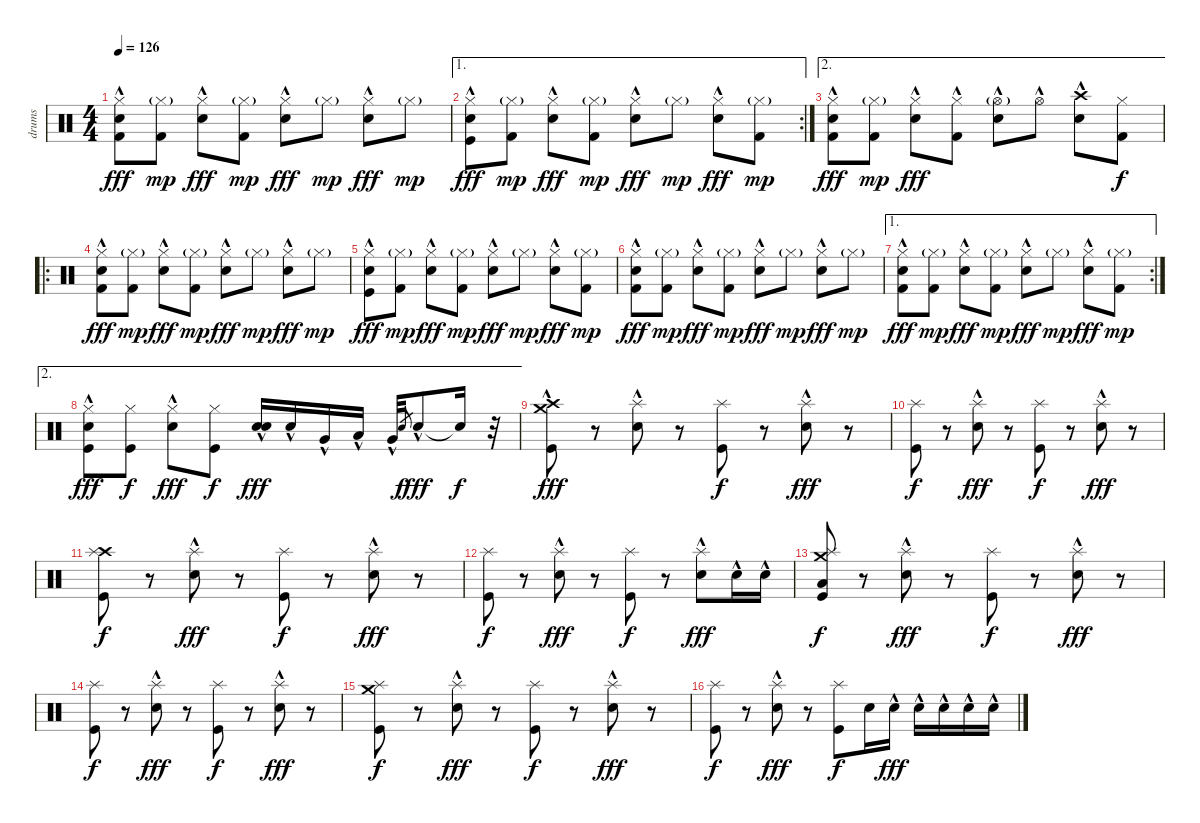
\track ("drums" "drums") {instrument percussion}
\staff {score}
\articulation defaults
\ts (4 4)
\tempo 126
\clef neutral
\ks c
("Hi-Hat (closed)" "Electric Snare (hit)"{hac} "Kick (hit) 2").8{dy fff} ("Hi-Hat (closed)"{g} "Kick (hit) 2").8{dy mp} ("Hi-Hat (closed)" "Electric Snare (hit)"{hac}).8{dy fff} ("Hi-Hat (closed)"{g} "Kick (hit) 2").8{dy mp} ("Hi-Hat (closed)" "Electric Snare (hit)"{hac}).8{dy fff} "Hi-Hat (closed)"{g}.8{dy mp} ("Hi-Hat (closed)" "Electric Snare (hit)"{hac}).8{dy fff} "Hi-Hat (closed)"{g}.8{dy mp} |
\ae 1
\rc 2
("Hi-Hat (closed)" "Electric Snare (hit)"{hac} "Kick (hit)").8{dy fff} ("Hi-Hat (closed)"{g} "Kick (hit) 2").8{dy mp} ("Hi-Hat (closed)" "Electric Snare (hit)"{hac}).8{dy fff} ("Hi-Hat (closed)"{g} "Kick (hit) 2").8{dy mp} ("Hi-Hat (closed)" "Electric Snare (hit)"{hac}).8{dy fff} "Hi-Hat (closed)"{g}.8{dy mp} ("Hi-Hat (closed)" "Electric Snare (hit)"{hac}).8{dy fff} ("Hi-Hat (closed)"{g} "Kick (hit) 2").8{dy mp} |
\ae 2
("Hi-Hat (closed)" "Electric Snare (hit)"{hac} "Kick (hit) 2").8{dy fff} ("Hi-Hat (closed)"{g} "Kick (hit) 2").8{dy mp} ("Hi-Hat (closed)" "Electric Snare (hit)"{hac}).8{dy fff} ("Hi-Hat (closed)"{hac} "Kick (hit) 2").8 ("Hi-Hat (open)"{g} "Electric Snare (hit)"{hac}).8 "Hi-Hat (open)"{hac}.8 ("Crash high (hit)" "Electric Snare (hit)"{hac}).8 ("Hi-Hat (closed)" "Kick (hit) 2").8{dy f} |
\ro
("Hi-Hat (closed)" "Electric Snare (hit)"{hac} "Kick (hit) 2").8{dy fff} ("Hi-Hat (closed)"{g} "Kick (hit) 2").8{dy mp} ("Hi-Hat (closed)" "Electric Snare (hit)"{hac}).8{dy fff} ("Hi-Hat (closed)"{g} "Kick (hit) 2").8{dy mp} ("Hi-Hat (closed)" "Electric Snare (hit)"{hac}).8{dy fff} "Hi-Hat (closed)"{g}.8{dy mp} ("Hi-Hat (closed)" "Electric Snare (hit)"{hac}).8{dy fff} "Hi-Hat (closed)"{g}.8{dy mp} |
("Hi-Hat (closed)" "Electric Snare (hit)"{hac} "Kick (hit)").8{dy fff} ("Hi-Hat (closed)"{g} "Kick (hit) 2").8{dy mp} ("Hi-Hat (closed)" "Electric Snare (hit)"{hac}).8{dy fff} ("Hi-Hat (closed)"{g} "Kick (hit) 2").8{dy mp} ("Hi-Hat (closed)" "Electric Snare (hit)"{hac}).8{dy fff} "Hi-Hat (closed)"{g}.8{dy mp} ("Hi-Hat (closed)" "Electric Snare (hit)"{hac}).8{dy fff} ("Hi-Hat (closed)"{g} "Kick (hit) 2").8{dy mp} |
("Hi-Hat (closed)" "Electric Snare (hit)"{hac} "Kick (hit) 2").8{dy fff} ("Hi-Hat (closed)"{g} "Kick (hit) 2").8{dy mp} ("Hi-Hat (closed)" "Electric Snare (hit)"{hac}).8{dy fff} ("Hi-Hat (closed)"{g} "Kick (hit) 2").8{dy mp} ("Hi-Hat (closed)" "Electric Snare (hit)"{hac}).8{dy fff} "Hi-Hat (closed)"{g}.8{dy mp} ("Hi-Hat (closed)" "Electric Snare (hit)"{hac}).8{dy fff} "Hi-Hat (closed)"{g}.8{dy mp} |
\ae 1
\rc 2
("Hi-Hat (closed)" "Electric Snare (hit)"{hac} "Kick (hit) 2").8{dy fff} ("Hi-Hat (closed)"{g} "Kick (hit) 2").8{dy mp} ("Hi-Hat (closed)" "Electric Snare (hit)"{hac}).8{dy fff} ("Hi-Hat (closed)"{g} "Kick (hit) 2").8{dy mp} ("Hi-Hat (closed)" "Electric Snare (hit)"{hac}).8{dy fff} "Hi-Hat (closed)"{g}.8{dy mp} ("Hi-Hat (closed)" "Electric Snare (hit)"{hac}).8{dy fff} ("Hi-Hat (closed)"{g} "Kick (hit) 2").8{dy mp} |
\ae 2
("Hi-Hat (closed)" "Electric Snare (hit)"{hac} "Kick (hit)").8{dy fff} ("Hi-Hat (closed)" "Kick (hit)").8{dy f} ("Hi-Hat (closed)" "Electric Snare (hit)"{hac}).8{dy fff} ("Hi-Hat (closed)" "Kick (hit)").8{dy f} ("Electric Snare (hit)"{hac} "Electric Snare (hit)"{hac}).16{dy fff} "Electric Snare (hit)"{hac}.16 "Very Low Tom (hit)"{hac}.16 "Low Floor Tom (hit)"{hac}.16 "Very Low Tom (hit)"{hac}.32 "Electric Snare (hit)".8{gr dy f} "Electric Snare (hit)"{hac}.8{dy fff} "Snare (hit)"{t}.16{dy f} r.32 |
("Crash high (hit)"{hac} "Crash medium (hit)"{hac} "Kick (hit)").8{dy fff} r.8 ("Splash (hit)" "Electric Snare (hit)"{hac}).8 r.8 ("Splash (hit)" "Kick (hit)").8{dy f} r.8 ("Splash (hit)" "Electric Snare (hit)"{hac}).8{dy fff} r.8 |
("Splash (hit)" "Kick (hit)").8{dy f} r.8 ("Splash (hit)" "Electric Snare (hit)"{hac}).8{dy fff} r.8 ("Splash (hit)" "Kick (hit)").8{dy f} r.8 ("Splash (hit)" "Electric Snare (hit)"{hac}).8{dy fff} r.8 |
("Crash high (hit)" "Splash (hit)" "Kick (hit)").8{dy f} r.8 ("Splash (hit)" "Electric Snare (hit)"{hac}).8{dy fff} r.8 ("Splash (hit)" "Kick (hit)").8{dy f} r.8 ("Splash (hit)" "Electric Snare (hit)"{hac}).8{dy fff} r.8 |
("Splash (hit)" "Kick (hit)").8{dy f} r.8 ("Splash (hit)" "Electric Snare (hit)"{hac}).8{dy fff} r.8 ("Splash (hit)" "Kick (hit)").8{dy f} r.8 ("Splash (hit)" "Electric Snare (hit)"{hac}).8{dy fff} "Electric Snare (hit)"{hac}.16 "Electric Snare (hit)"{hac}.16 |
("Crash medium (hit)" "Splash (hit)" "Low Tom (hit)" "Kick (hit)").8{dy f} r.8 ("Splash (hit)" "Electric Snare (hit)"{hac}).8{dy fff} r.8 ("Splash (hit)" "Kick (hit)").8{dy f} r.8 ("Splash (hit)" "Electric Snare (hit)"{hac}).8{dy fff} r.8 |
("Splash (hit)" "Kick (hit)").8{dy f} r.8 ("Splash (hit)" "Electric Snare (hit)"{hac}).8{dy fff} r.8 ("Splash (hit)" "Kick (hit)").8{dy f} r.8 ("Splash (hit)" "Electric Snare (hit)"{hac}).8{dy fff} r.8 |
("Crash medium (hit)" "Splash (hit)" "Kick (hit)").8{dy f} r.8 ("Splash (hit)" "Electric Snare (hit)"{hac}).8{dy fff} r.8 ("Splash (hit)" "Kick (hit)").8{dy f} r.8 ("Splash (hit)" "Electric Snare (hit)"{hac}).8{dy fff} r.8 |
("Splash (hit)" "Kick (hit)").8{dy f} r.8 ("Splash (hit)" "Electric Snare (hit)"{hac}).8{dy fff} r.8 ("Splash (hit)" "Kick (hit)").8{dy f} "Electric Snare (hit)".16 "Electric Snare (hit)"{hac}.16{dy fff} "Electric Snare (hit)"{hac}.16 "Electric Snare (hit)"{hac}.16 "Electric Snare (hit)"{hac}.16 "Electric Snare (hit)"{hac}.16
